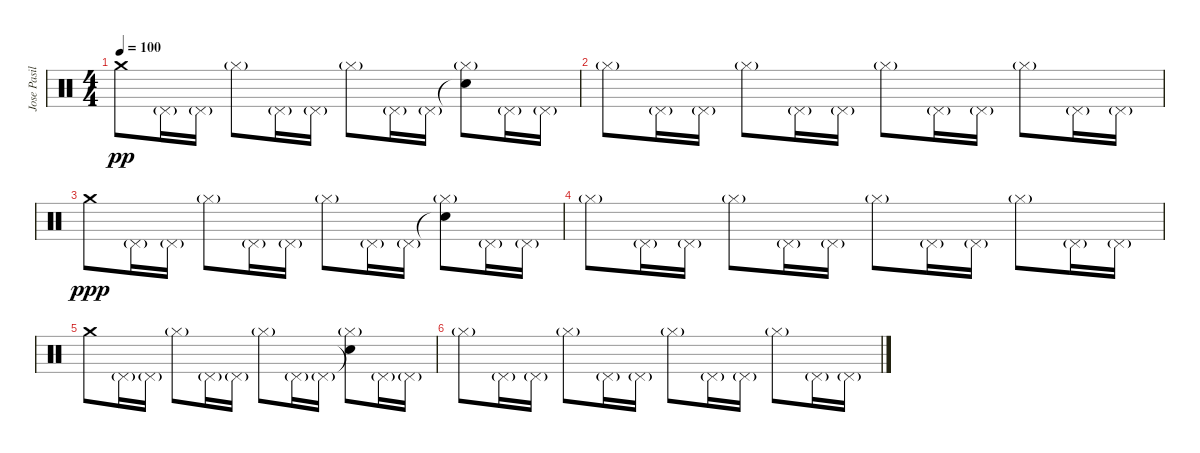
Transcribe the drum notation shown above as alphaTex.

\track ("Jose Pasillas III" "Jose Pasil") {instrument percussion}
\staff {score}
\articulation defaults
\ts (4 4)
\tempo 100
\clef neutral
\ks c "Crash medium (hit)".8{dy pp} "Pedal Hi-Hat (hit)"{g}.16 "Pedal Hi-Hat (hit)"{g}.16 "Hi-Hat (closed)"{g}.8 "Pedal Hi-Hat (hit)"{g}.16 "Pedal Hi-Hat (hit)"{g}.16 "Hi-Hat (closed)"{g}.8 "Pedal Hi-Hat (hit)"{g}.16 "Pedal Hi-Hat (hit)"{g}.16
("Snare (hit)"{t} "Hi-Hat (closed)"{g}).8 "Pedal Hi-Hat (hit)"{g}.16 "Pedal Hi-Hat (hit)"{g}.16 |
"Hi-Hat (closed)"{g}.8 "Pedal Hi-Hat (hit)"{g}.16 "Pedal Hi-Hat (hit)"{g}.16 "Hi-Hat (closed)"{g}.8 "Pedal Hi-Hat (hit)"{g}.16 "Pedal Hi-Hat (hit)"{g}.16 "Hi-Hat (closed)"{g}.8 "Pedal Hi-Hat (hit)"{g}.16 "Pedal Hi-Hat (hit)"{g}.16 "Hi-Hat (closed)"{g}.8 "Pedal Hi-Hat (hit)"{g}.16 "Pedal Hi-Hat (hit)"{g}.16 |
"Crash medium (hit)".8{dy ppp} "Pedal Hi-Hat (hit)"{g}.16 "Pedal Hi-Hat (hit)"{g}.16 "Hi-Hat (closed)"{g}.8 "Pedal Hi-Hat (hit)"{g}.16 "Pedal Hi-Hat (hit)"{g}.16 "Hi-Hat (closed)"{g}.8 "Pedal Hi-Hat (hit)"{g}.16 "Pedal Hi-Hat (hit)"{g}.16 ("Snare (hit)"{t} "Hi-Hat (closed)"{g}).8 "Pedal Hi-Hat (hit)"{g}.16 "Pedal Hi-Hat (hit)"{g}.16 |
"Hi-Hat (closed)"{g}.8 "Pedal Hi-Hat (hit)"{g}.16 "Pedal Hi-Hat (hit)"{g}.16 "Hi-Hat (closed)"{g}.8 "Pedal Hi-Hat (hit)"{g}.16 "Pedal Hi-Hat (hit)"{g}.16 "Hi-Hat (closed)"{g}.8 "Pedal Hi-Hat (hit)"{g}.16 "Pedal Hi-Hat (hit)"{g}.16 "Hi-Hat (closed)"{g}.8 "Pedal Hi-Hat (hit)"{g}.16 "Pedal Hi-Hat (hit)"{g}.16 |
"Crash medium (hit)".8 "Pedal Hi-Hat (hit)"{g}.16 "Pedal Hi-Hat (hit)"{g}.16 "Hi-Hat (closed)"{g}.8 "Pedal Hi-Hat (hit)"{g}.16 "Pedal Hi-Hat (hit)"{g}.16 "Hi-Hat (closed)"{g}.8 "Pedal Hi-Hat (hit)"{g}.16 "Pedal Hi-Hat (hit)"{g}.16 ("Snare (hit)"{t} "Hi-Hat (closed)"{g}).8 "Pedal Hi-Hat (hit)"{g}.16 "Pedal Hi-Hat (hit)"{g}.16 |
"Hi-Hat (closed)"{g}.8 "Pedal Hi-Hat (hit)"{g}.16 "Pedal Hi-Hat (hit)"{g}.16 "Hi-Hat (closed)"{g}.8 "Pedal Hi-Hat (hit)"{g}.16 "Pedal Hi-Hat (hit)"{g}.16 "Hi-Hat (closed)"{g}.8 "Pedal Hi-Hat (hit)"{g}.16 "Pedal Hi-Hat (hit)"{g}.16 "Hi-Hat (closed)"{g}.8 "Pedal Hi-Hat (hit)"{g}.16 "Pedal Hi-Hat (hit)"{g}.16
